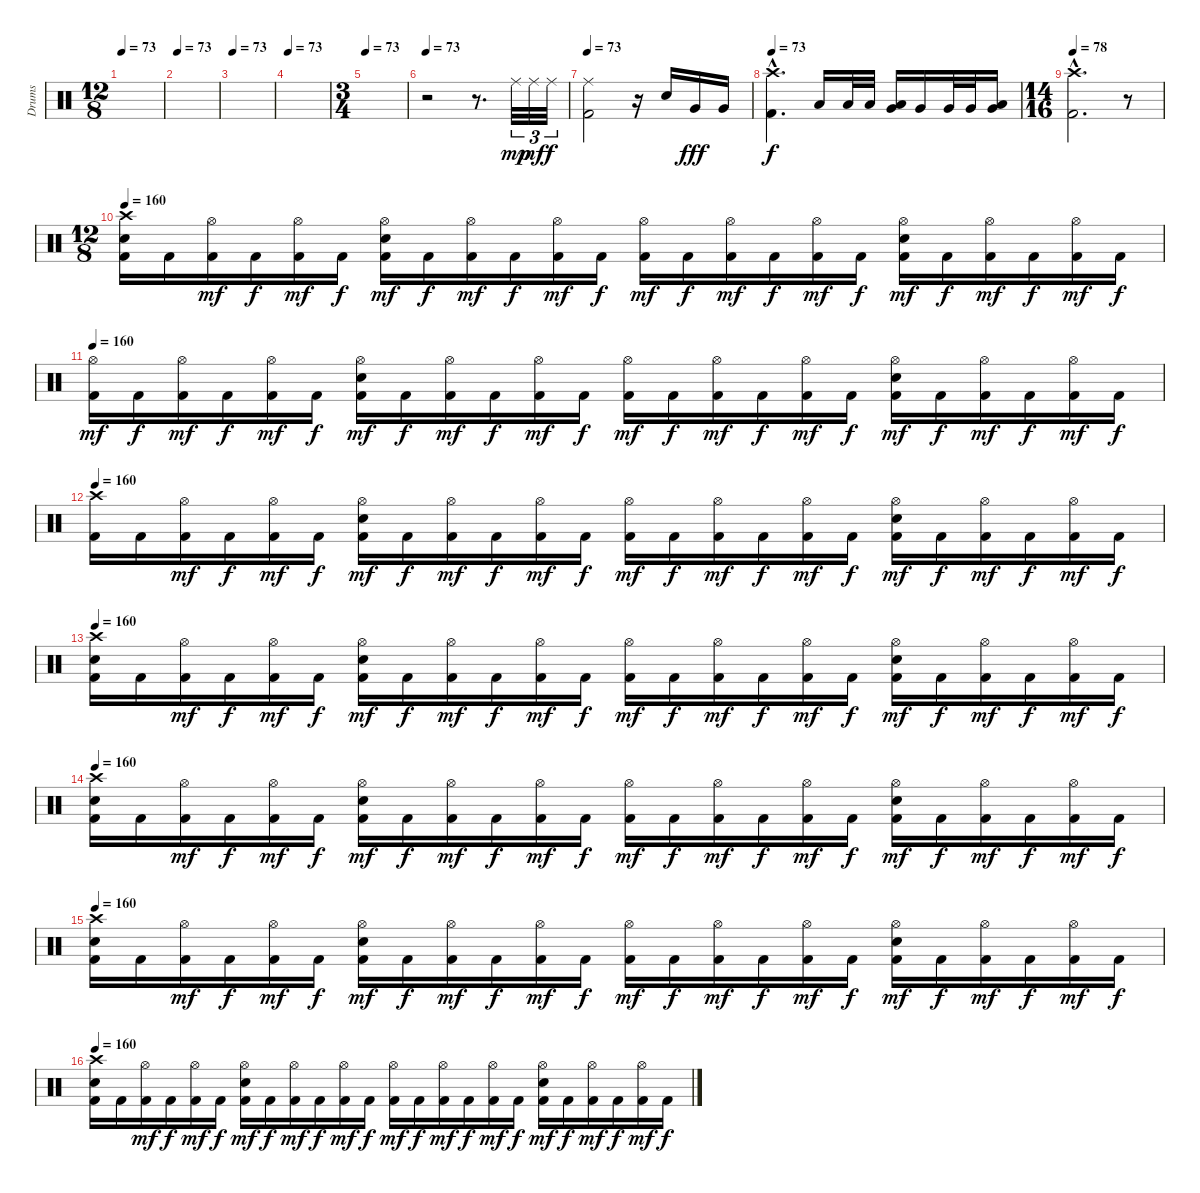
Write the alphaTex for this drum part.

\track ("Drums" "Drums") {instrument percussion}
\staff {score}
\articulation defaults
\ts (12 8)
\tempo 73
\clef neutral
\ks c
|
\tempo 73
|
\tempo 73
|
\tempo 73
|
\ts (3 4)
\tempo 73
|
\tempo 73
r.2 r.8{d} "Ride (middle)".32{tu (3 2) dy mp} "Ride (middle)".32{tu (3 2) dy mf} "Ride (middle)".32{tu (3 2) dy f} |
\tempo 73
("Ride (middle)" "Kick (hit) 2").2 r.16 "Electric Snare (hit)".16 "Very Low Tom (hit)".16{dy fff} "Very Low Tom (hit)".16 |
\tempo 73
("Crash high (hit)"{hac} "Kick (hit) 2"{hac}).4{d dy f} "Low Tom (hit)".16 "Low Tom (hit)".32 "Low Tom (hit)".32 ("Low Tom (hit)" "Very Low Tom (hit)").16 "Very Low Tom (hit)".16 "Very Low Tom (hit)".32 "Very Low Tom (hit)".32 ("Very Low Tom (hit)" "Low Floor Tom (hit)").16 |
\ts (14 16)
\tempo 78
("Crash high (hit)"{hac} "Kick (hit) 2"{hac}).2{d} r.8 |
\ts (12 8)
\tempo 160
("Crash high (hit)" "Electric Snare (hit)" "Kick (hit) 2").16 "Kick (hit) 2".16 ("Hi-Hat (open)" "Kick (hit) 2").16{dy mf} "Kick (hit) 2".16{dy f} ("Hi-Hat (open)" "Kick (hit) 2").16{dy mf} "Kick (hit) 2".16{dy f} ("Hi-Hat (open)" "Electric Snare (hit)" "Kick (hit) 2").16{dy mf} "Kick (hit) 2".16{dy f} ("Hi-Hat (open)" "Kick (hit) 2").16{dy mf} "Kick (hit) 2".16{dy f} ("Hi-Hat (open)" "Kick (hit) 2").16{dy mf} "Kick (hit) 2".16{dy f} ("Hi-Hat (open)" "Kick (hit) 2").16{dy mf} "Kick (hit) 2".16{dy f} ("Hi-Hat (open)" "Kick (hit) 2").16{dy mf} "Kick (hit) 2".16{dy f} ("Hi-Hat (open)" "Kick (hit) 2").16{dy mf} "Kick (hit) 2".16{dy f} ("Hi-Hat (open)" "Electric Snare (hit)" "Kick (hit) 2").16{dy mf} "Kick (hit) 2".16{dy f} ("Hi-Hat (open)" "Kick (hit) 2").16{dy mf} "Kick (hit) 2".16{dy f} ("Hi-Hat (open)" "Kick (hit) 2").16{dy mf} "Kick (hit) 2".16{dy f} |
\tempo 160
("Hi-Hat (open)" "Kick (hit) 2").16{dy mf} "Kick (hit) 2".16{dy f} ("Hi-Hat (open)" "Kick (hit) 2").16{dy mf} "Kick (hit) 2".16{dy f} ("Hi-Hat (open)" "Kick (hit) 2").16{dy mf} "Kick (hit) 2".16{dy f} ("Hi-Hat (open)" "Electric Snare (hit)" "Kick (hit) 2").16{dy mf} "Kick (hit) 2".16{dy f} ("Hi-Hat (open)" "Kick (hit) 2").16{dy mf} "Kick (hit) 2".16{dy f} ("Hi-Hat (open)" "Kick (hit) 2").16{dy mf} "Kick (hit) 2".16{dy f} ("Hi-Hat (open)" "Kick (hit) 2").16{dy mf} "Kick (hit) 2".16{dy f} ("Hi-Hat (open)" "Kick (hit) 2").16{dy mf} "Kick (hit) 2".16{dy f} ("Hi-Hat (open)" "Kick (hit) 2").16{dy mf} "Kick (hit) 2".16{dy f} ("Hi-Hat (open)" "Electric Snare (hit)" "Kick (hit) 2").16{dy mf} "Kick (hit) 2".16{dy f} ("Hi-Hat (open)" "Kick (hit) 2").16{dy mf} "Kick (hit) 2".16{dy f} ("Hi-Hat (open)" "Kick (hit) 2").16{dy mf} "Kick (hit) 2".16{dy f} |
\tempo 160
("Crash high (hit)" "Kick (hit) 2").16 "Kick (hit) 2".16 ("Hi-Hat (open)" "Kick (hit) 2").16{dy mf} "Kick (hit) 2".16{dy f} ("Hi-Hat (open)" "Kick (hit) 2").16{dy mf} "Kick (hit) 2".16{dy f} ("Hi-Hat (open)" "Electric Snare (hit)" "Kick (hit) 2").16{dy mf} "Kick (hit) 2".16{dy f} ("Hi-Hat (open)" "Kick (hit) 2").16{dy mf} "Kick (hit) 2".16{dy f} ("Hi-Hat (open)" "Kick (hit) 2").16{dy mf} "Kick (hit) 2".16{dy f} ("Hi-Hat (open)" "Kick (hit) 2").16{dy mf} "Kick (hit) 2".16{dy f} ("Hi-Hat (open)" "Kick (hit) 2").16{dy mf} "Kick (hit) 2".16{dy f} ("Hi-Hat (open)" "Kick (hit) 2").16{dy mf} "Kick (hit) 2".16{dy f} ("Hi-Hat (open)" "Electric Snare (hit)" "Kick (hit) 2").16{dy mf} "Kick (hit) 2".16{dy f} ("Hi-Hat (open)" "Kick (hit) 2").16{dy mf} "Kick (hit) 2".16{dy f} ("Hi-Hat (open)" "Kick (hit) 2").16{dy mf} "Kick (hit) 2".16{dy f} |
\tempo 160
("Crash high (hit)" "Electric Snare (hit)" "Kick (hit) 2").16 "Kick (hit) 2".16 ("Hi-Hat (open)" "Kick (hit) 2").16{dy mf} "Kick (hit) 2".16{dy f} ("Hi-Hat (open)" "Kick (hit) 2").16{dy mf} "Kick (hit) 2".16{dy f} ("Hi-Hat (open)" "Electric Snare (hit)" "Kick (hit) 2").16{dy mf} "Kick (hit) 2".16{dy f} ("Hi-Hat (open)" "Kick (hit) 2").16{dy mf} "Kick (hit) 2".16{dy f} ("Hi-Hat (open)" "Kick (hit) 2").16{dy mf} "Kick (hit) 2".16{dy f} ("Hi-Hat (open)" "Kick (hit) 2").16{dy mf} "Kick (hit) 2".16{dy f} ("Hi-Hat (open)" "Kick (hit) 2").16{dy mf} "Kick (hit) 2".16{dy f} ("Hi-Hat (open)" "Kick (hit) 2").16{dy mf} "Kick (hit) 2".16{dy f} ("Hi-Hat (open)" "Electric Snare (hit)" "Kick (hit) 2").16{dy mf} "Kick (hit) 2".16{dy f} ("Hi-Hat (open)" "Kick (hit) 2").16{dy mf} "Kick (hit) 2".16{dy f} ("Hi-Hat (open)" "Kick (hit) 2").16{dy mf} "Kick (hit) 2".16{dy f} |
\tempo 160
("Crash high (hit)" "Electric Snare (hit)" "Kick (hit) 2").16 "Kick (hit) 2".16 ("Hi-Hat (open)" "Kick (hit) 2").16{dy mf} "Kick (hit) 2".16{dy f} ("Hi-Hat (open)" "Kick (hit) 2").16{dy mf} "Kick (hit) 2".16{dy f} ("Hi-Hat (open)" "Electric Snare (hit)" "Kick (hit) 2").16{dy mf} "Kick (hit) 2".16{dy f} ("Hi-Hat (open)" "Kick (hit) 2").16{dy mf} "Kick (hit) 2".16{dy f} ("Hi-Hat (open)" "Kick (hit) 2").16{dy mf} "Kick (hit) 2".16{dy f} ("Hi-Hat (open)" "Kick (hit) 2").16{dy mf} "Kick (hit) 2".16{dy f} ("Hi-Hat (open)" "Kick (hit) 2").16{dy mf} "Kick (hit) 2".16{dy f} ("Hi-Hat (open)" "Kick (hit) 2").16{dy mf} "Kick (hit) 2".16{dy f} ("Hi-Hat (open)" "Electric Snare (hit)" "Kick (hit) 2").16{dy mf} "Kick (hit) 2".16{dy f} ("Hi-Hat (open)" "Kick (hit) 2").16{dy mf} "Kick (hit) 2".16{dy f} ("Hi-Hat (open)" "Kick (hit) 2").16{dy mf} "Kick (hit) 2".16{dy f} |
\tempo 160
("Crash high (hit)" "Electric Snare (hit)" "Kick (hit) 2").16 "Kick (hit) 2".16 ("Hi-Hat (open)" "Kick (hit) 2").16{dy mf} "Kick (hit) 2".16{dy f} ("Hi-Hat (open)" "Kick (hit) 2").16{dy mf} "Kick (hit) 2".16{dy f} ("Hi-Hat (open)" "Electric Snare (hit)" "Kick (hit) 2").16{dy mf} "Kick (hit) 2".16{dy f} ("Hi-Hat (open)" "Kick (hit) 2").16{dy mf} "Kick (hit) 2".16{dy f} ("Hi-Hat (open)" "Kick (hit) 2").16{dy mf} "Kick (hit) 2".16{dy f} ("Hi-Hat (open)" "Kick (hit) 2").16{dy mf} "Kick (hit) 2".16{dy f} ("Hi-Hat (open)" "Kick (hit) 2").16{dy mf} "Kick (hit) 2".16{dy f} ("Hi-Hat (open)" "Kick (hit) 2").16{dy mf} "Kick (hit) 2".16{dy f} ("Hi-Hat (open)" "Electric Snare (hit)" "Kick (hit) 2").16{dy mf} "Kick (hit) 2".16{dy f} ("Hi-Hat (open)" "Kick (hit) 2").16{dy mf} "Kick (hit) 2".16{dy f} ("Hi-Hat (open)" "Kick (hit) 2").16{dy mf} "Kick (hit) 2".16{dy f} |
\tempo 160
("Crash high (hit)" "Electric Snare (hit)" "Kick (hit) 2").16 "Kick (hit) 2".16 ("Hi-Hat (open)" "Kick (hit) 2").16{dy mf} "Kick (hit) 2".16{dy f} ("Hi-Hat (open)" "Kick (hit) 2").16{dy mf} "Kick (hit) 2".16{dy f} ("Hi-Hat (open)" "Electric Snare (hit)" "Kick (hit) 2").16{dy mf} "Kick (hit) 2".16{dy f} ("Hi-Hat (open)" "Kick (hit) 2").16{dy mf} "Kick (hit) 2".16{dy f} ("Hi-Hat (open)" "Kick (hit) 2").16{dy mf} "Kick (hit) 2".16{dy f} ("Hi-Hat (open)" "Kick (hit) 2").16{dy mf} "Kick (hit) 2".16{dy f} ("Hi-Hat (open)" "Kick (hit) 2").16{dy mf} "Kick (hit) 2".16{dy f} ("Hi-Hat (open)" "Kick (hit) 2").16{dy mf} "Kick (hit) 2".16{dy f} ("Hi-Hat (open)" "Electric Snare (hit)" "Kick (hit) 2").16{dy mf} "Kick (hit) 2".16{dy f} ("Hi-Hat (open)" "Kick (hit) 2").16{dy mf} "Kick (hit) 2".16{dy f} ("Hi-Hat (open)" "Kick (hit) 2").16{dy mf} "Kick (hit) 2".16{dy f}
